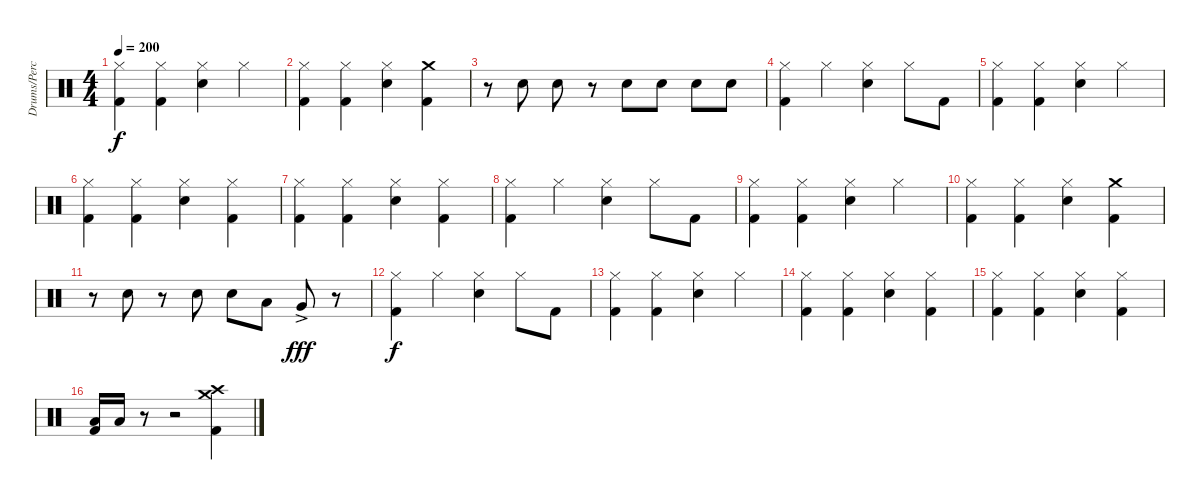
\track ("Drums/Percussion" "Drums/Perc") {instrument percussion}
\staff {score}
\articulation defaults
\ts (4 4)
\tempo 200
\clef neutral
\ks c
("Kick (hit) 2" "Hi-Hat (closed)").4{dy f} ("Kick (hit) 2" "Hi-Hat (closed)").4 ("Snare (hit) 2" "Hi-Hat (closed)").4 "Hi-Hat (closed)".4 |
("Kick (hit) 2" "Hi-Hat (closed)").4 ("Kick (hit) 2" "Hi-Hat (closed)").4 ("Snare (hit) 2" "Hi-Hat (closed)").4 ("Kick (hit) 2" "Crash medium (hit)").4 |
r.8 "Snare (hit) 2".8 "Snare (hit) 2".8 r.8 "Snare (hit) 2".8 "Snare (hit) 2".8 "Snare (hit) 2".8 "Snare (hit) 2".8 |
("Kick (hit) 2" "Hi-Hat (closed)").4 "Hi-Hat (closed)".4 ("Snare (hit) 2" "Hi-Hat (closed)").4 "Hi-Hat (closed)".8 "Kick (hit) 2".8 |
("Kick (hit) 2" "Hi-Hat (closed)").4 ("Kick (hit) 2" "Hi-Hat (closed)").4 ("Snare (hit) 2" "Hi-Hat (closed)").4 "Hi-Hat (closed)".4 |
("Kick (hit) 2" "Hi-Hat (closed)").4 ("Kick (hit) 2" "Hi-Hat (closed)").4 ("Snare (hit) 2" "Hi-Hat (closed)").4 ("Kick (hit) 2" "Hi-Hat (closed)").4 |
("Kick (hit) 2" "Hi-Hat (closed)").4 ("Kick (hit) 2" "Hi-Hat (closed)").4 ("Snare (hit) 2" "Hi-Hat (closed)").4 ("Kick (hit) 2" "Hi-Hat (closed)").4 |
("Kick (hit) 2" "Hi-Hat (closed)").4 "Hi-Hat (closed)".4 ("Snare (hit) 2" "Hi-Hat (closed)").4 "Hi-Hat (closed)".8 "Kick (hit) 2".8 |
("Kick (hit) 2" "Hi-Hat (closed)").4 ("Kick (hit) 2" "Hi-Hat (closed)").4 ("Snare (hit) 2" "Hi-Hat (closed)").4 "Hi-Hat (closed)".4 |
("Kick (hit) 2" "Hi-Hat (closed)").4 ("Kick (hit) 2" "Hi-Hat (closed)").4 ("Snare (hit) 2" "Hi-Hat (closed)").4 ("Kick (hit) 2" "Crash medium (hit)").4 |
r.8 "Snare (hit) 2".8 r.8 "Snare (hit) 2".8 "Snare (hit) 2".8 "Low Tom (hit)".8 "Very Low Tom (hit)"{ac}.8{dy fff} r.8 |
("Kick (hit) 2" "Hi-Hat (closed)").4{dy f} "Hi-Hat (closed)".4 ("Snare (hit) 2" "Hi-Hat (closed)").4 "Hi-Hat (closed)".8 "Kick (hit) 2".8 |
("Kick (hit) 2" "Hi-Hat (closed)").4 ("Kick (hit) 2" "Hi-Hat (closed)").4 ("Snare (hit) 2" "Hi-Hat (closed)").4 "Hi-Hat (closed)".4 |
("Kick (hit) 2" "Hi-Hat (closed)").4 ("Kick (hit) 2" "Hi-Hat (closed)").4 ("Snare (hit) 2" "Hi-Hat (closed)").4 ("Kick (hit) 2" "Hi-Hat (closed)").4 |
("Kick (hit) 2" "Hi-Hat (closed)").4 ("Kick (hit) 2" "Hi-Hat (closed)").4 ("Snare (hit) 2" "Hi-Hat (closed)").4 ("Kick (hit) 2" "Hi-Hat (closed)").4 |
("Kick (hit) 2" "Low Floor Tom (hit)").16 "Low Floor Tom (hit)".16 r.8 r.2 ("Kick (hit) 2" "Crash high (hit)" "Crash medium (hit)").4
